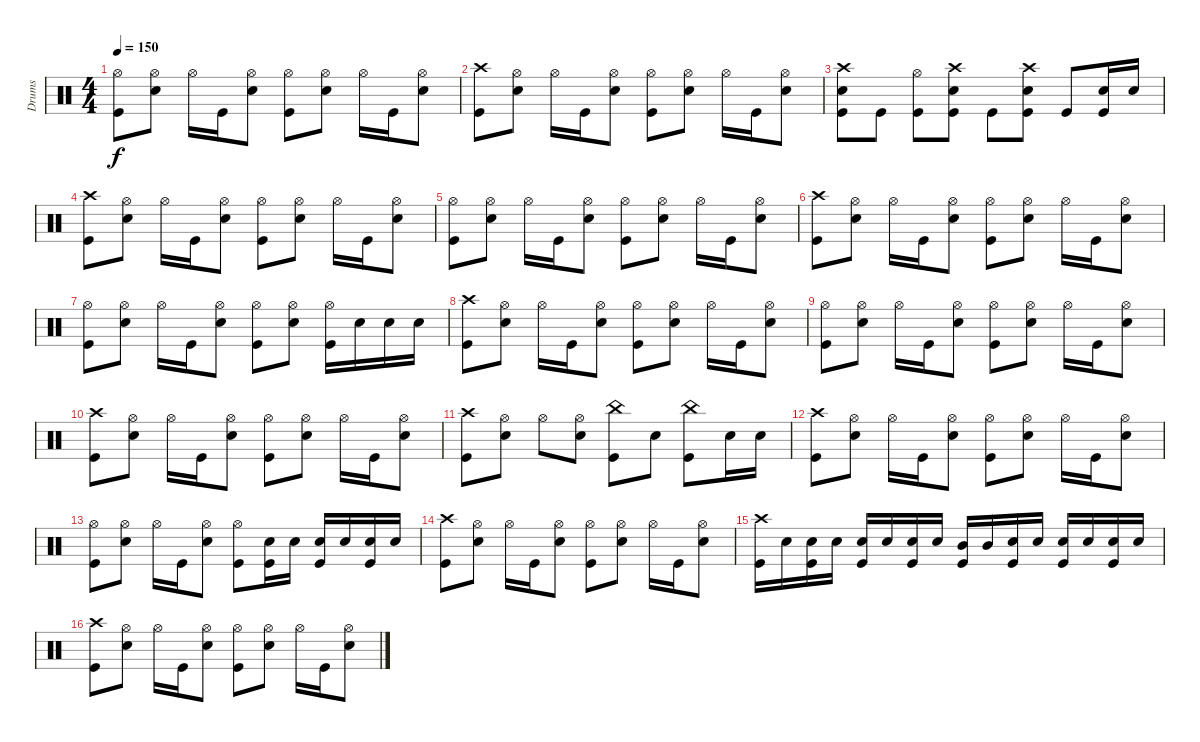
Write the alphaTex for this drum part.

\track ("Drums" "Drums") {instrument percussion}
\staff {score}
\articulation defaults
\ts (4 4)
\tempo 150
\clef neutral
\ks c
("Hi-Hat (open)" "Kick (hit)").8{dy f} ("Hi-Hat (open)" "Snare (hit) 2").8 "Hi-Hat (open)".16 "Kick (hit)".16 ("Hi-Hat (open)" "Snare (hit) 2").8 ("Hi-Hat (open)" "Kick (hit)").8 ("Hi-Hat (open)" "Snare (hit) 2").8 "Hi-Hat (open)".16 "Kick (hit)".16 ("Hi-Hat (open)" "Snare (hit) 2").8 |
("Crash high (hit)" "Kick (hit)").8 ("Hi-Hat (open)" "Snare (hit) 2").8 "Hi-Hat (open)".16 "Kick (hit)".16 ("Hi-Hat (open)" "Snare (hit) 2").8 ("Hi-Hat (open)" "Kick (hit)").8 ("Hi-Hat (open)" "Snare (hit) 2").8 "Hi-Hat (open)".16 "Kick (hit)".16 ("Hi-Hat (open)" "Snare (hit) 2").8 |
("Crash high (hit)" "Snare (hit) 2" "Kick (hit)").8 "Kick (hit)".8 ("Hi-Hat (open)" "Kick (hit)").8 ("Crash high (hit)" "Snare (hit) 2" "Kick (hit)").8 "Kick (hit)".8 ("Crash high (hit)" "Snare (hit) 2" "Kick (hit)").8 "Kick (hit)".8 ("Snare (hit) 2" "Kick (hit)").16 "Snare (hit) 2".16 |
("Crash high (hit)" "Kick (hit)").8 ("Hi-Hat (open)" "Snare (hit) 2").8 "Hi-Hat (open)".16 "Kick (hit)".16 ("Hi-Hat (open)" "Snare (hit) 2").8 ("Hi-Hat (open)" "Kick (hit)").8 ("Hi-Hat (open)" "Snare (hit) 2").8 "Hi-Hat (open)".16 "Kick (hit)".16 ("Hi-Hat (open)" "Snare (hit) 2").8 |
("Hi-Hat (open)" "Kick (hit)").8 ("Hi-Hat (open)" "Snare (hit) 2").8 "Hi-Hat (open)".16 "Kick (hit)".16 ("Hi-Hat (open)" "Snare (hit) 2").8 ("Hi-Hat (open)" "Kick (hit)").8 ("Hi-Hat (open)" "Snare (hit) 2").8 "Hi-Hat (open)".16 "Kick (hit)".16 ("Hi-Hat (open)" "Snare (hit) 2").8 |
("Crash high (hit)" "Kick (hit)").8 ("Hi-Hat (open)" "Snare (hit) 2").8 "Hi-Hat (open)".16 "Kick (hit)".16 ("Hi-Hat (open)" "Snare (hit) 2").8 ("Hi-Hat (open)" "Kick (hit)").8 ("Hi-Hat (open)" "Snare (hit) 2").8 "Hi-Hat (open)".16 "Kick (hit)".16 ("Hi-Hat (open)" "Snare (hit) 2").8 |
("Hi-Hat (open)" "Kick (hit)").8 ("Hi-Hat (open)" "Snare (hit) 2").8 "Hi-Hat (open)".16 "Kick (hit)".16 ("Hi-Hat (open)" "Snare (hit) 2").8 ("Hi-Hat (open)" "Kick (hit)").8 ("Hi-Hat (open)" "Snare (hit) 2").8 ("Hi-Hat (open)" "Kick (hit)").16 "Snare (hit) 2".16 "Snare (hit) 2".16 "Snare (hit) 2".16 |
("Crash high (hit)" "Kick (hit)").8 ("Hi-Hat (open)" "Snare (hit) 2").8 "Hi-Hat (open)".16 "Kick (hit)".16 ("Hi-Hat (open)" "Snare (hit) 2").8 ("Hi-Hat (open)" "Kick (hit)").8 ("Hi-Hat (open)" "Snare (hit) 2").8 "Hi-Hat (open)".16 "Kick (hit)".16 ("Hi-Hat (open)" "Snare (hit) 2").8 |
("Hi-Hat (open)" "Kick (hit)").8 ("Hi-Hat (open)" "Snare (hit) 2").8 "Hi-Hat (open)".16 "Kick (hit)".16 ("Hi-Hat (open)" "Snare (hit) 2").8 ("Hi-Hat (open)" "Kick (hit)").8 ("Hi-Hat (open)" "Snare (hit) 2").8 "Hi-Hat (open)".16 "Kick (hit)".16 ("Hi-Hat (open)" "Snare (hit) 2").8 |
("Crash high (hit)" "Kick (hit)").8 ("Hi-Hat (open)" "Snare (hit) 2").8 "Hi-Hat (open)".16 "Kick (hit)".16 ("Hi-Hat (open)" "Snare (hit) 2").8 ("Hi-Hat (open)" "Kick (hit)").8 ("Hi-Hat (open)" "Snare (hit) 2").8 "Hi-Hat (open)".16 "Kick (hit)".16 ("Hi-Hat (open)" "Snare (hit) 2").8 |
("Crash high (hit)" "Kick (hit)").8 ("Hi-Hat (open)" "Snare (hit) 2").8 "Hi-Hat (open)".8 ("Hi-Hat (open)" "Snare (hit) 2").8 ("China (hit)" "Kick (hit)").8 "Snare (hit) 2".8 ("China (hit)" "Kick (hit)").8 "Snare (hit) 2".16 "Snare (hit) 2".16 |
("Crash high (hit)" "Kick (hit)").8 ("Hi-Hat (open)" "Snare (hit) 2").8 "Hi-Hat (open)".16 "Kick (hit)".16 ("Hi-Hat (open)" "Snare (hit) 2").8 ("Hi-Hat (open)" "Kick (hit)").8 ("Hi-Hat (open)" "Snare (hit) 2").8 "Hi-Hat (open)".16 "Kick (hit)".16 ("Hi-Hat (open)" "Snare (hit) 2").8 |
("Hi-Hat (open)" "Kick (hit)").8 ("Hi-Hat (open)" "Snare (hit) 2").8 "Hi-Hat (open)".16 "Kick (hit)".16 ("Hi-Hat (open)" "Snare (hit) 2").8 ("Hi-Hat (open)" "Kick (hit)").8 ("Snare (hit) 2" "Kick (hit)").16 "Snare (hit) 2".16 ("Snare (hit) 2" "Kick (hit)").16 "Snare (hit) 2".16 ("Snare (hit) 2" "Kick (hit)").16 "Snare (hit) 2".16 |
("Crash high (hit)" "Kick (hit)").8 ("Hi-Hat (open)" "Snare (hit) 2").8 "Hi-Hat (open)".16 "Kick (hit)".16 ("Hi-Hat (open)" "Snare (hit) 2").8 ("Hi-Hat (open)" "Kick (hit)").8 ("Hi-Hat (open)" "Snare (hit) 2").8 "Hi-Hat (open)".16 "Kick (hit)".16 ("Hi-Hat (open)" "Snare (hit) 2").8 |
("Crash high (hit)" "Kick (hit)").16 "Snare (hit) 2".16 ("Snare (hit) 2" "Kick (hit)").16 "Snare (hit) 2".16 ("Snare (hit) 2" "Kick (hit)").16 "Snare (hit) 2".16 ("Snare (hit) 2" "Kick (hit)").16 "Snare (hit) 2".16 ("Mid Tom (hit)" "Kick (hit)").16 "Mid Tom (hit)".16 ("Snare (hit) 2" "Kick (hit)").16 "Snare (hit) 2".16 ("Snare (hit) 2" "Kick (hit)").16 "Snare (hit) 2".16 ("Snare (hit) 2" "Kick (hit)").16 "Snare (hit) 2".16 |
("Crash high (hit)" "Kick (hit)").8 ("Hi-Hat (open)" "Snare (hit) 2").8 "Hi-Hat (open)".16 "Kick (hit)".16 ("Hi-Hat (open)" "Snare (hit) 2").8 ("Hi-Hat (open)" "Kick (hit)").8 ("Hi-Hat (open)" "Snare (hit) 2").8 "Hi-Hat (open)".16 "Kick (hit)".16 ("Hi-Hat (open)" "Snare (hit) 2").8
